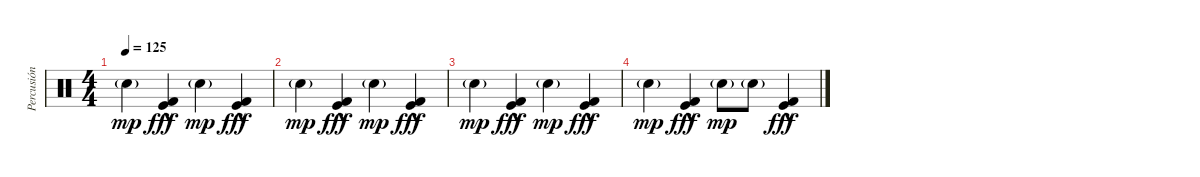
\track ("Percusión" "Percusión") {instrument percussion}
\staff {score}
\articulation defaults
\ts (4 4)
\tempo 125
\clef neutral
\ks c "Snare (hit) 2"{g}.4{dy mp}
("Kick (hit)"{hac} "Kick (hit) 2"{hac}).4{dy fff} "Snare (hit) 2"{g}.4{dy mp} ("Kick (hit) 2"{hac} "Kick (hit)"{hac}).4{dy fff} |
"Snare (hit) 2"{g}.4{dy mp} ("Kick (hit) 2"{hac} "Kick (hit)"{hac}).4{dy fff} "Snare (hit) 2"{g}.4{dy mp} ("Kick (hit) 2"{hac} "Kick (hit)"{hac}).4{dy fff} |
"Snare (hit) 2"{g}.4{dy mp} ("Kick (hit) 2"{hac} "Kick (hit)"{hac}).4{dy fff} "Snare (hit) 2"{g}.4{dy mp} ("Kick (hit) 2"{hac} "Kick (hit)"{hac}).4{dy fff} |
"Snare (hit) 2"{g}.4{dy mp} ("Kick (hit) 2"{hac} "Kick (hit)"{hac}).4{dy fff} "Snare (hit) 2"{g}.8{dy mp} "Snare (hit) 2"{g}.8 ("Kick (hit) 2"{hac} "Kick (hit)"{hac}).4{dy fff}
